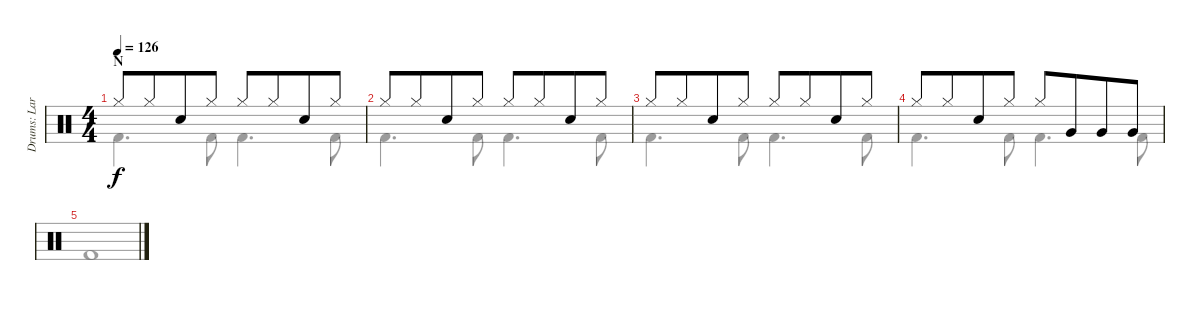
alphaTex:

\track ("Drums: Larrie" "Drums: Lar") {instrument percussion}
\staff {score}
\articulation defaults
\voice
\ts (4 4)
\section ("" "N")
\tempo 126
\clef neutral
\ks c "Hi-Hat (closed)".8{dy f} "Hi-Hat (closed)".8{beam merge} "Snare (hit) 2".8 "Hi-Hat (closed)".8 "Hi-Hat (closed)".8 "Hi-Hat (closed)".8{beam merge} "Snare (hit) 2".8 "Hi-Hat (closed)".8
|
"Hi-Hat (closed)".8 "Hi-Hat (closed)".8{beam merge} "Snare (hit) 2".8 "Hi-Hat (closed)".8 "Hi-Hat (closed)".8 "Hi-Hat (closed)".8{beam merge} "Snare (hit) 2".8 "Hi-Hat (closed)".8 |
"Hi-Hat (closed)".8 "Hi-Hat (closed)".8{beam merge} "Snare (hit) 2".8 "Hi-Hat (closed)".8 "Hi-Hat (closed)".8 "Hi-Hat (closed)".8{beam merge} "Snare (hit) 2".8 "Hi-Hat (closed)".8 |
"Hi-Hat (closed)".8 "Hi-Hat (closed)".8{beam merge} "Snare (hit) 2".8 "Hi-Hat (closed)".8 "Hi-Hat (closed)".8 "Very Low Tom (hit)".8{beam merge} "Very Low Tom (hit)".8 "Very Low Tom (hit)".8 |
|
|
|
\voice
\clef neutral
\ottava regular
\simile none
\ks c "Kick (hit) 2".4{d dy f} "Kick (hit) 2".8 "Kick (hit) 2".4{d} "Kick (hit) 2".8
|
"Kick (hit) 2".4{d} "Kick (hit) 2".8 "Kick (hit) 2".4{d} "Kick (hit) 2".8 |
"Kick (hit) 2".4{d} "Kick (hit) 2".8 "Kick (hit) 2".4{d} "Kick (hit) 2".8 |
"Kick (hit) 2".4{d} "Kick (hit) 2".8 "Kick (hit) 2".4{d} "Kick (hit) 2".8 |
"Kick (hit) 2".1 |
|
|
